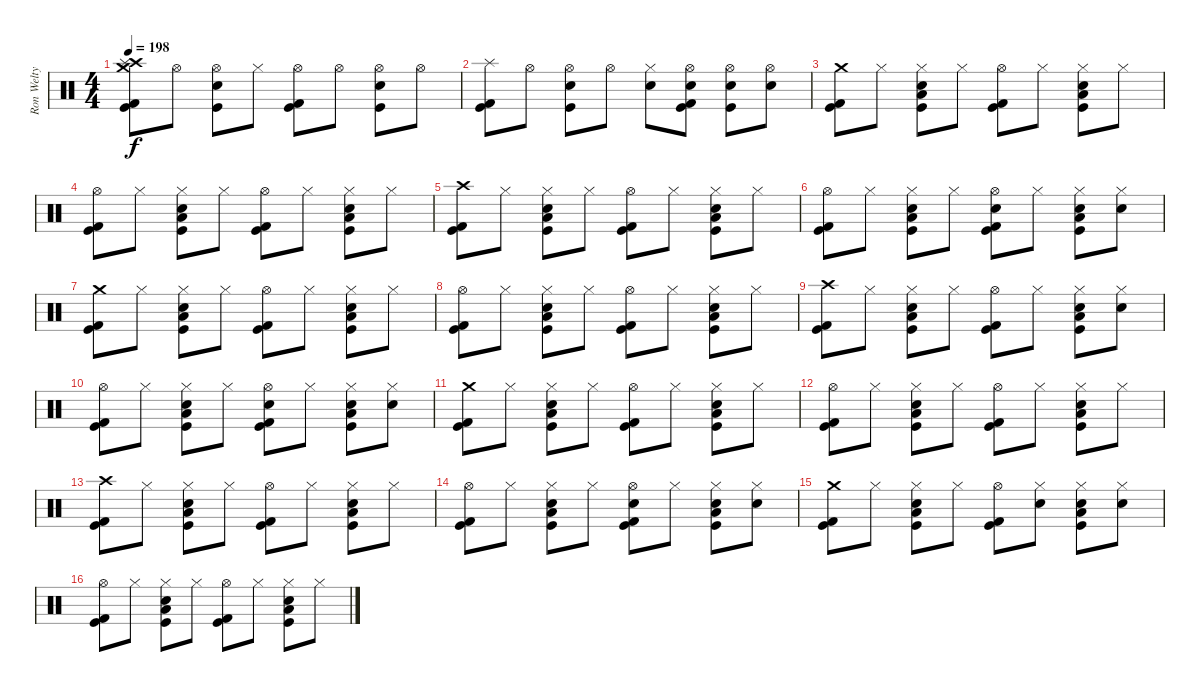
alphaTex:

\track ("Ron Welty" "Ron Welty") {instrument percussion}
\staff {score}
\articulation defaults
\ts (4 4)
\tempo 198
\clef neutral
\ks c
("Crash medium (hit)" "Crash high (hit)" "Splash (hit)" "Kick (hit) 2" "Kick (hit)").8{dy f} "Hi-Hat (open)".8 ("Hi-Hat (open)" "Electric Snare (hit)" "Kick (hit)").8 "Hi-Hat (closed)".8 ("Hi-Hat (open)" "Kick (hit) 2" "Kick (hit)").8 "Hi-Hat (open)".8 ("Hi-Hat (open)" "Electric Snare (hit)" "Kick (hit)").8 "Hi-Hat (open)".8 |
("Splash (hit)" "Kick (hit) 2" "Kick (hit)").8 "Hi-Hat (open)".8 ("Hi-Hat (open)" "Electric Snare (hit)" "Kick (hit)").8 "Hi-Hat (open)".8 ("Hi-Hat (closed)" "Electric Snare (hit)").8 ("Hi-Hat (open)" "Electric Snare (hit)" "Kick (hit) 2" "Kick (hit)").8 ("Hi-Hat (open)" "Electric Snare (hit)" "Kick (hit)").8 ("Hi-Hat (open)" "Electric Snare (hit)").8 |
("Crash medium (hit)" "Kick (hit) 2" "Kick (hit)").8 "Hi-Hat (closed)".8 ("Hi-Hat (closed)" "Electric Snare (hit)" "Low Tom (hit)" "Kick (hit)").8 "Hi-Hat (closed)".8 ("Hi-Hat (open)" "Kick (hit) 2" "Kick (hit)").8 "Hi-Hat (closed)".8 ("Hi-Hat (closed)" "Electric Snare (hit)" "Low Tom (hit)" "Kick (hit)").8 "Hi-Hat (closed)".8 |
("Hi-Hat (open)" "Kick (hit) 2" "Kick (hit)").8 "Hi-Hat (closed)".8 ("Hi-Hat (closed)" "Electric Snare (hit)" "Low Tom (hit)" "Kick (hit)").8 "Hi-Hat (closed)".8 ("Hi-Hat (open)" "Kick (hit) 2" "Kick (hit)").8 "Hi-Hat (closed)".8 ("Hi-Hat (closed)" "Electric Snare (hit)" "Low Tom (hit)" "Kick (hit)").8 "Hi-Hat (closed)".8 |
("Crash high (hit)" "Kick (hit) 2" "Kick (hit)").8 "Hi-Hat (closed)".8 ("Hi-Hat (closed)" "Electric Snare (hit)" "Low Tom (hit)" "Kick (hit)").8 "Hi-Hat (closed)".8 ("Hi-Hat (open)" "Kick (hit) 2" "Kick (hit)").8 "Hi-Hat (closed)".8 ("Hi-Hat (closed)" "Electric Snare (hit)" "Low Tom (hit)" "Kick (hit)").8 "Hi-Hat (closed)".8 |
("Hi-Hat (open)" "Kick (hit) 2" "Kick (hit)").8 "Hi-Hat (closed)".8 ("Hi-Hat (closed)" "Electric Snare (hit)" "Low Tom (hit)" "Kick (hit)").8 "Hi-Hat (closed)".8 ("Hi-Hat (open)" "Electric Snare (hit)" "Kick (hit) 2" "Kick (hit)").8 "Hi-Hat (closed)".8 ("Hi-Hat (closed)" "Electric Snare (hit)" "Low Tom (hit)" "Kick (hit)").8 ("Hi-Hat (closed)" "Electric Snare (hit)").8 |
("Crash medium (hit)" "Kick (hit) 2" "Kick (hit)").8 "Hi-Hat (closed)".8 ("Hi-Hat (closed)" "Electric Snare (hit)" "Low Tom (hit)" "Kick (hit)").8 "Hi-Hat (closed)".8 ("Hi-Hat (open)" "Kick (hit) 2" "Kick (hit)").8 "Hi-Hat (closed)".8 ("Hi-Hat (closed)" "Electric Snare (hit)" "Low Tom (hit)" "Kick (hit)").8 "Hi-Hat (closed)".8 |
("Hi-Hat (open)" "Kick (hit) 2" "Kick (hit)").8 "Hi-Hat (closed)".8 ("Hi-Hat (closed)" "Electric Snare (hit)" "Low Tom (hit)" "Kick (hit)").8 "Hi-Hat (closed)".8 ("Hi-Hat (open)" "Kick (hit) 2" "Kick (hit)").8 "Hi-Hat (closed)".8 ("Hi-Hat (closed)" "Electric Snare (hit)" "Low Tom (hit)" "Kick (hit)").8 "Hi-Hat (closed)".8 |
("Crash high (hit)" "Kick (hit) 2" "Kick (hit)").8 "Hi-Hat (closed)".8 ("Hi-Hat (closed)" "Electric Snare (hit)" "Low Tom (hit)" "Kick (hit)").8 "Hi-Hat (closed)".8 ("Hi-Hat (open)" "Kick (hit) 2" "Kick (hit)").8 "Hi-Hat (closed)".8 ("Hi-Hat (closed)" "Electric Snare (hit)" "Low Tom (hit)" "Kick (hit)").8 ("Hi-Hat (closed)" "Electric Snare (hit)").8 |
("Hi-Hat (open)" "Kick (hit) 2" "Kick (hit)").8 "Hi-Hat (closed)".8 ("Hi-Hat (closed)" "Electric Snare (hit)" "Low Tom (hit)" "Kick (hit)").8 "Hi-Hat (closed)".8 ("Hi-Hat (open)" "Electric Snare (hit)" "Kick (hit) 2" "Kick (hit)").8 "Hi-Hat (closed)".8 ("Hi-Hat (closed)" "Electric Snare (hit)" "Low Tom (hit)" "Kick (hit)").8 ("Hi-Hat (closed)" "Electric Snare (hit)").8 |
("Crash medium (hit)" "Kick (hit) 2" "Kick (hit)").8 "Hi-Hat (closed)".8 ("Hi-Hat (closed)" "Electric Snare (hit)" "Low Tom (hit)" "Kick (hit)").8 "Hi-Hat (closed)".8 ("Hi-Hat (open)" "Kick (hit) 2" "Kick (hit)").8 "Hi-Hat (closed)".8 ("Hi-Hat (closed)" "Electric Snare (hit)" "Low Tom (hit)" "Kick (hit)").8 "Hi-Hat (closed)".8 |
("Hi-Hat (open)" "Kick (hit) 2" "Kick (hit)").8 "Hi-Hat (closed)".8 ("Hi-Hat (closed)" "Electric Snare (hit)" "Low Tom (hit)" "Kick (hit)").8 "Hi-Hat (closed)".8 ("Hi-Hat (open)" "Kick (hit) 2" "Kick (hit)").8 "Hi-Hat (closed)".8 ("Hi-Hat (closed)" "Electric Snare (hit)" "Low Tom (hit)" "Kick (hit)").8 "Hi-Hat (closed)".8 |
("Crash high (hit)" "Kick (hit) 2" "Kick (hit)").8 "Hi-Hat (closed)".8 ("Hi-Hat (closed)" "Electric Snare (hit)" "Low Tom (hit)" "Kick (hit)").8 "Hi-Hat (closed)".8 ("Hi-Hat (open)" "Kick (hit) 2" "Kick (hit)").8 "Hi-Hat (closed)".8 ("Hi-Hat (closed)" "Electric Snare (hit)" "Low Tom (hit)" "Kick (hit)").8 "Hi-Hat (closed)".8 |
("Hi-Hat (open)" "Kick (hit) 2" "Kick (hit)").8 "Hi-Hat (closed)".8 ("Hi-Hat (closed)" "Electric Snare (hit)" "Low Tom (hit)" "Kick (hit)").8 "Hi-Hat (closed)".8 ("Hi-Hat (open)" "Electric Snare (hit)" "Kick (hit) 2" "Kick (hit)").8 "Hi-Hat (closed)".8 ("Hi-Hat (closed)" "Electric Snare (hit)" "Low Tom (hit)" "Kick (hit)").8 ("Hi-Hat (closed)" "Electric Snare (hit)").8 |
("Crash medium (hit)" "Kick (hit) 2" "Kick (hit)").8 "Hi-Hat (closed)".8 ("Hi-Hat (closed)" "Electric Snare (hit)" "Low Tom (hit)" "Kick (hit)").8 "Hi-Hat (closed)".8 ("Hi-Hat (open)" "Kick (hit) 2" "Kick (hit)").8 ("Hi-Hat (closed)" "Electric Snare (hit)").8 ("Hi-Hat (closed)" "Electric Snare (hit)" "Low Tom (hit)" "Kick (hit)").8 ("Hi-Hat (closed)" "Electric Snare (hit)").8 |
("Hi-Hat (open)" "Kick (hit) 2" "Kick (hit)").8 "Hi-Hat (closed)".8 ("Hi-Hat (closed)" "Electric Snare (hit)" "Low Tom (hit)" "Kick (hit)").8 "Hi-Hat (closed)".8 ("Hi-Hat (open)" "Kick (hit) 2" "Kick (hit)").8 "Hi-Hat (closed)".8 ("Hi-Hat (closed)" "Electric Snare (hit)" "Low Tom (hit)" "Kick (hit)").8 "Hi-Hat (closed)".8
